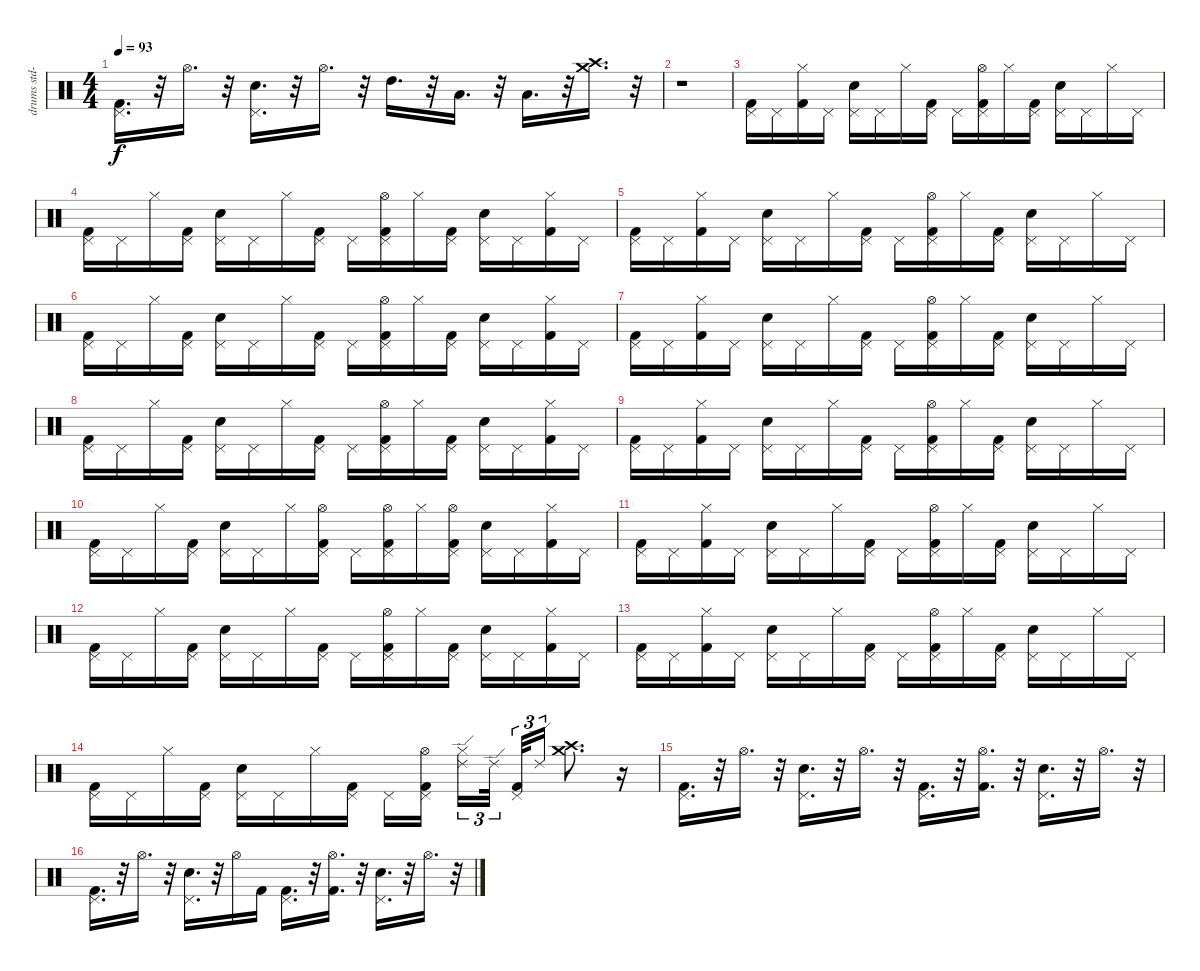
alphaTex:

\track ("drums std-0" "drums std-") {instrument percussion}
\staff {score}
\articulation defaults
\ts (4 4)
\tempo 93
\clef neutral
\ks c
("Pedal Hi-Hat (hit)" "Kick (hit) 2").16{d dy f} r.32 "Hi-Hat (open)".16{d} r.32 ("Pedal Hi-Hat (hit)" "Snare (hit) 2").16{d} r.32 "Hi-Hat (open)".16{d} r.32 "High Tom (hit)".16{d} r.32 "Low Tom (hit)".16{d} r.32 "Low Floor Tom (hit)".16{d} r.32 ("Crash high (hit)" "Crash medium (hit)").16{d} r.32 |
r.1 |
("Pedal Hi-Hat (hit)" "Kick (hit) 2").16 "Pedal Hi-Hat (hit)".16 ("Hi-Hat (closed)" "Kick (hit) 2").16 "Pedal Hi-Hat (hit)".16 ("Pedal Hi-Hat (hit)" "Snare (hit) 2").16 "Pedal Hi-Hat (hit)".16 "Hi-Hat (closed)".16 ("Pedal Hi-Hat (hit)" "Kick (hit) 2").16 "Pedal Hi-Hat (hit)".16 ("Pedal Hi-Hat (hit)" "Kick (hit) 2" "Hi-Hat (open)").16 "Hi-Hat (closed)".16 ("Pedal Hi-Hat (hit)" "Kick (hit) 2").16 ("Pedal Hi-Hat (hit)" "Snare (hit) 2").16 "Pedal Hi-Hat (hit)".16 "Hi-Hat (closed)".16 "Pedal Hi-Hat (hit)".16 |
("Pedal Hi-Hat (hit)" "Kick (hit) 2").16 "Pedal Hi-Hat (hit)".16 "Hi-Hat (closed)".16 ("Pedal Hi-Hat (hit)" "Kick (hit) 2").16 ("Pedal Hi-Hat (hit)" "Snare (hit) 2").16 "Pedal Hi-Hat (hit)".16 "Hi-Hat (closed)".16 ("Pedal Hi-Hat (hit)" "Kick (hit) 2").16 "Pedal Hi-Hat (hit)".16 ("Pedal Hi-Hat (hit)" "Kick (hit) 2" "Hi-Hat (open)").16 "Hi-Hat (closed)".16 ("Pedal Hi-Hat (hit)" "Kick (hit) 2").16 ("Pedal Hi-Hat (hit)" "Snare (hit) 2").16 "Pedal Hi-Hat (hit)".16 ("Hi-Hat (closed)" "Kick (hit) 2").16 "Pedal Hi-Hat (hit)".16 |
("Pedal Hi-Hat (hit)" "Kick (hit) 2").16 "Pedal Hi-Hat (hit)".16 ("Hi-Hat (closed)" "Kick (hit) 2").16 "Pedal Hi-Hat (hit)".16 ("Pedal Hi-Hat (hit)" "Snare (hit) 2").16 "Pedal Hi-Hat (hit)".16 "Hi-Hat (closed)".16 ("Pedal Hi-Hat (hit)" "Kick (hit) 2").16 "Pedal Hi-Hat (hit)".16 ("Pedal Hi-Hat (hit)" "Kick (hit) 2" "Hi-Hat (open)").16 "Hi-Hat (closed)".16 ("Pedal Hi-Hat (hit)" "Kick (hit) 2").16 ("Pedal Hi-Hat (hit)" "Snare (hit) 2").16 "Pedal Hi-Hat (hit)".16 "Hi-Hat (closed)".16 "Pedal Hi-Hat (hit)".16 |
("Pedal Hi-Hat (hit)" "Kick (hit) 2").16 "Pedal Hi-Hat (hit)".16 "Hi-Hat (closed)".16 ("Pedal Hi-Hat (hit)" "Kick (hit) 2").16 ("Pedal Hi-Hat (hit)" "Snare (hit) 2").16 "Pedal Hi-Hat (hit)".16 "Hi-Hat (closed)".16 ("Pedal Hi-Hat (hit)" "Kick (hit) 2").16 "Pedal Hi-Hat (hit)".16 ("Pedal Hi-Hat (hit)" "Kick (hit) 2" "Hi-Hat (open)").16 "Hi-Hat (closed)".16 ("Pedal Hi-Hat (hit)" "Kick (hit) 2").16 ("Pedal Hi-Hat (hit)" "Snare (hit) 2").16 "Pedal Hi-Hat (hit)".16 ("Hi-Hat (closed)" "Kick (hit) 2").16 "Pedal Hi-Hat (hit)".16 |
("Pedal Hi-Hat (hit)" "Kick (hit) 2").16 "Pedal Hi-Hat (hit)".16 ("Hi-Hat (closed)" "Kick (hit) 2").16 "Pedal Hi-Hat (hit)".16 ("Pedal Hi-Hat (hit)" "Snare (hit) 2").16 "Pedal Hi-Hat (hit)".16 "Hi-Hat (closed)".16 ("Pedal Hi-Hat (hit)" "Kick (hit) 2").16 "Pedal Hi-Hat (hit)".16 ("Pedal Hi-Hat (hit)" "Kick (hit) 2" "Hi-Hat (open)").16 "Hi-Hat (closed)".16 ("Pedal Hi-Hat (hit)" "Kick (hit) 2").16 ("Pedal Hi-Hat (hit)" "Snare (hit) 2").16 "Pedal Hi-Hat (hit)".16 "Hi-Hat (closed)".16 "Pedal Hi-Hat (hit)".16 |
("Pedal Hi-Hat (hit)" "Kick (hit) 2").16 "Pedal Hi-Hat (hit)".16 "Hi-Hat (closed)".16 ("Pedal Hi-Hat (hit)" "Kick (hit) 2").16 ("Pedal Hi-Hat (hit)" "Snare (hit) 2").16 "Pedal Hi-Hat (hit)".16 "Hi-Hat (closed)".16 ("Pedal Hi-Hat (hit)" "Kick (hit) 2").16 "Pedal Hi-Hat (hit)".16 ("Pedal Hi-Hat (hit)" "Kick (hit) 2" "Hi-Hat (open)").16 "Hi-Hat (closed)".16 ("Pedal Hi-Hat (hit)" "Kick (hit) 2").16 ("Pedal Hi-Hat (hit)" "Snare (hit) 2").16 "Pedal Hi-Hat (hit)".16 ("Hi-Hat (closed)" "Kick (hit) 2").16 "Pedal Hi-Hat (hit)".16 |
("Pedal Hi-Hat (hit)" "Kick (hit) 2").16 "Pedal Hi-Hat (hit)".16 ("Hi-Hat (closed)" "Kick (hit) 2").16 "Pedal Hi-Hat (hit)".16 ("Pedal Hi-Hat (hit)" "Snare (hit) 2").16 "Pedal Hi-Hat (hit)".16 "Hi-Hat (closed)".16 ("Pedal Hi-Hat (hit)" "Kick (hit) 2").16 "Pedal Hi-Hat (hit)".16 ("Pedal Hi-Hat (hit)" "Kick (hit) 2" "Hi-Hat (open)").16 "Hi-Hat (closed)".16 ("Pedal Hi-Hat (hit)" "Kick (hit) 2").16 ("Pedal Hi-Hat (hit)" "Snare (hit) 2").16 "Pedal Hi-Hat (hit)".16 "Hi-Hat (closed)".16 "Pedal Hi-Hat (hit)".16 |
("Pedal Hi-Hat (hit)" "Kick (hit) 2").16 "Pedal Hi-Hat (hit)".16 "Hi-Hat (closed)".16 ("Pedal Hi-Hat (hit)" "Kick (hit) 2").16 ("Pedal Hi-Hat (hit)" "Snare (hit) 2").16 "Pedal Hi-Hat (hit)".16 "Hi-Hat (closed)".16 ("Pedal Hi-Hat (hit)" "Kick (hit) 2" "Hi-Hat (open)").16 "Pedal Hi-Hat (hit)".16 ("Pedal Hi-Hat (hit)" "Kick (hit) 2" "Hi-Hat (open)").16 "Hi-Hat (closed)".16 ("Pedal Hi-Hat (hit)" "Kick (hit) 2" "Hi-Hat (open)").16 ("Pedal Hi-Hat (hit)" "Snare (hit) 2").16 "Pedal Hi-Hat (hit)".16 ("Hi-Hat (closed)" "Kick (hit) 2").16 "Pedal Hi-Hat (hit)".16 |
("Pedal Hi-Hat (hit)" "Kick (hit) 2").16 "Pedal Hi-Hat (hit)".16 ("Hi-Hat (closed)" "Kick (hit) 2").16 "Pedal Hi-Hat (hit)".16 ("Pedal Hi-Hat (hit)" "Snare (hit) 2").16 "Pedal Hi-Hat (hit)".16 "Hi-Hat (closed)".16 ("Pedal Hi-Hat (hit)" "Kick (hit) 2").16 "Pedal Hi-Hat (hit)".16 ("Pedal Hi-Hat (hit)" "Kick (hit) 2" "Hi-Hat (open)").16 "Hi-Hat (closed)".16 ("Pedal Hi-Hat (hit)" "Kick (hit) 2").16 ("Pedal Hi-Hat (hit)" "Snare (hit) 2").16 "Pedal Hi-Hat (hit)".16 "Hi-Hat (closed)".16 "Pedal Hi-Hat (hit)".16 |
("Pedal Hi-Hat (hit)" "Kick (hit) 2").16 "Pedal Hi-Hat (hit)".16 "Hi-Hat (closed)".16 ("Pedal Hi-Hat (hit)" "Kick (hit) 2").16 ("Pedal Hi-Hat (hit)" "Snare (hit) 2").16 "Pedal Hi-Hat (hit)".16 "Hi-Hat (closed)".16 ("Pedal Hi-Hat (hit)" "Kick (hit) 2").16 "Pedal Hi-Hat (hit)".16 ("Pedal Hi-Hat (hit)" "Kick (hit) 2" "Hi-Hat (open)").16 "Hi-Hat (closed)".16 ("Pedal Hi-Hat (hit)" "Kick (hit) 2").16 ("Pedal Hi-Hat (hit)" "Snare (hit) 2").16 "Pedal Hi-Hat (hit)".16 ("Hi-Hat (closed)" "Kick (hit) 2").16 "Pedal Hi-Hat (hit)".16 |
("Pedal Hi-Hat (hit)" "Kick (hit) 2").16 "Pedal Hi-Hat (hit)".16 ("Hi-Hat (closed)" "Kick (hit) 2").16 "Pedal Hi-Hat (hit)".16 ("Pedal Hi-Hat (hit)" "Snare (hit) 2").16 "Pedal Hi-Hat (hit)".16 "Hi-Hat (closed)".16 ("Pedal Hi-Hat (hit)" "Kick (hit) 2").16 "Pedal Hi-Hat (hit)".16 ("Pedal Hi-Hat (hit)" "Kick (hit) 2" "Hi-Hat (open)").16 "Hi-Hat (closed)".16 ("Pedal Hi-Hat (hit)" "Kick (hit) 2").16 ("Pedal Hi-Hat (hit)" "Snare (hit) 2").16 "Pedal Hi-Hat (hit)".16 "Hi-Hat (closed)".16 "Pedal Hi-Hat (hit)".16 |
("Pedal Hi-Hat (hit)" "Kick (hit) 2").16 "Pedal Hi-Hat (hit)".16 "Hi-Hat (closed)".16 ("Pedal Hi-Hat (hit)" "Kick (hit) 2").16 ("Pedal Hi-Hat (hit)" "Snare (hit) 2").16 "Pedal Hi-Hat (hit)".16 "Hi-Hat (closed)".16 ("Pedal Hi-Hat (hit)" "Kick (hit) 2").16 "Pedal Hi-Hat (hit)".16 ("Pedal Hi-Hat (hit)" "Kick (hit) 2" "Hi-Hat (open)").16 ("Ride (edge) 2" "Hi-Hat (closed)").16{tu (3 2)} "Ride (edge) 2".32{tu (3 2)} ("Pedal Hi-Hat (hit)" "Kick (hit) 2").32{tu (3 2)} "Ride (edge) 2".16{tu (3 2)} ("Crash medium (hit)" "Crash high (hit)").8{d} r.16 |
("Pedal Hi-Hat (hit)" "Kick (hit) 2").16{d} r.32 "Hi-Hat (open)".16{d} r.32 ("Pedal Hi-Hat (hit)" "Snare (hit) 2").16{d} r.32 "Hi-Hat (open)".16{d} r.32 ("Pedal Hi-Hat (hit)" "Kick (hit) 2").16{d} r.32 ("Hi-Hat (open)" "Kick (hit) 2").16{d} r.32 ("Pedal Hi-Hat (hit)" "Snare (hit) 2").16{d} r.32 "Hi-Hat (open)".16{d} r.32 |
("Pedal Hi-Hat (hit)" "Kick (hit) 2").16{d} r.32 "Hi-Hat (open)".16{d} r.32 ("Pedal Hi-Hat (hit)" "Snare (hit) 2").16{d} r.32 "Hi-Hat (open)".16 "Kick (hit) 2".16 ("Pedal Hi-Hat (hit)" "Kick (hit) 2").16{d} r.32 ("Hi-Hat (open)" "Kick (hit) 2").16{d} r.32 ("Pedal Hi-Hat (hit)" "Snare (hit) 2").16{d} r.32 "Hi-Hat (open)".16{d} r.32
